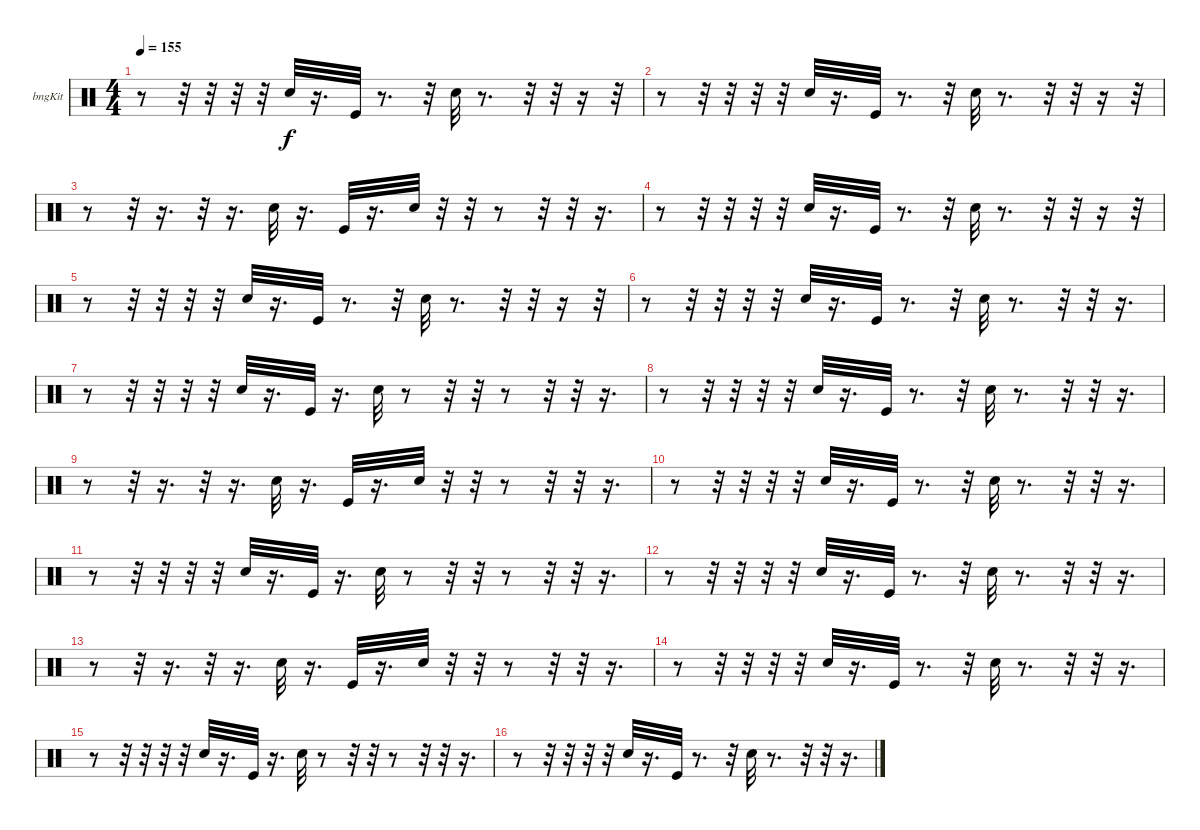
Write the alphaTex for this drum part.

\bracketExtendMode groupsimilarinstruments
\firstSystemTrackNameOrientation horizontal
\otherSystemsTrackNameOrientation horizontal
\track ("Е. Кулаков" "bngKit") {instrument percussion}
\staff {score}
\articulation defaults
\ts (4 4)
\tempo 155
\clef neutral
\ks c
r.8{dy f} r.32 r.32 r.32 r.32 "Snare (hit) 2".32 r.16{d} "Kick (hit)".32 r.8{d} r.32 "Snare (hit) 2".32 r.8{d} r.32 r.32 r.16 r.32 |
r.8 r.32 r.32 r.32 r.32 "Snare (hit) 2".32 r.16{d} "Kick (hit)".32 r.8{d} r.32 "Snare (hit) 2".32 r.8{d} r.32 r.32 r.16 r.32 |
r.8 r.32 r.16{d} r.32 r.16{d} "Snare (hit) 2".32 r.16{d} "Kick (hit)".32 r.16{d} "Snare (hit) 2".32 r.32 r.32 r.8 r.32 r.32 r.16{d} |
r.8 r.32 r.32 r.32 r.32 "Snare (hit) 2".32 r.16{d} "Kick (hit)".32 r.8{d} r.32 "Snare (hit) 2".32 r.8{d} r.32 r.32 r.16 r.32 |
r.8 r.32 r.32 r.32 r.32 "Snare (hit) 2".32 r.16{d} "Kick (hit)".32 r.8{d} r.32 "Snare (hit) 2".32 r.8{d} r.32 r.32 r.16 r.32 |
r.8 r.32 r.32 r.32 r.32 "Snare (hit) 2".32 r.16{d} "Kick (hit)".32 r.8{d} r.32 "Snare (hit) 2".32 r.8{d} r.32 r.32 r.16{d} |
r.8 r.32 r.32 r.32 r.32 "Snare (hit) 2".32 r.16{d} "Kick (hit)".32 r.16{d} "Snare (hit) 2".32 r.8 r.32 r.32 r.8 r.32 r.32 r.16{d} |
r.8 r.32 r.32 r.32 r.32 "Snare (hit) 2".32 r.16{d} "Kick (hit)".32 r.8{d} r.32 "Snare (hit) 2".32 r.8{d} r.32 r.32 r.16{d} |
r.8 r.32 r.16{d} r.32 r.16{d} "Snare (hit) 2".32 r.16{d} "Kick (hit)".32 r.16{d} "Snare (hit) 2".32 r.32 r.32 r.8 r.32 r.32 r.16{d} |
r.8 r.32 r.32 r.32 r.32 "Snare (hit) 2".32 r.16{d} "Kick (hit)".32 r.8{d} r.32 "Snare (hit) 2".32 r.8{d} r.32 r.32 r.16{d} |
r.8 r.32 r.32 r.32 r.32 "Snare (hit) 2".32 r.16{d} "Kick (hit)".32 r.16{d} "Snare (hit) 2".32 r.8 r.32 r.32 r.8 r.32 r.32 r.16{d} |
r.8 r.32 r.32 r.32 r.32 "Snare (hit) 2".32 r.16{d} "Kick (hit)".32 r.8{d} r.32 "Snare (hit) 2".32 r.8{d} r.32 r.32 r.16{d} |
r.8 r.32 r.16{d} r.32 r.16{d} "Snare (hit) 2".32 r.16{d} "Kick (hit)".32 r.16{d} "Snare (hit) 2".32 r.32 r.32 r.8 r.32 r.32 r.16{d} |
r.8 r.32 r.32 r.32 r.32 "Snare (hit) 2".32 r.16{d} "Kick (hit)".32 r.8{d} r.32 "Snare (hit) 2".32 r.8{d} r.32 r.32 r.16{d} |
r.8 r.32 r.32 r.32 r.32 "Snare (hit) 2".32 r.16{d} "Kick (hit)".32 r.16{d} "Snare (hit) 2".32 r.8 r.32 r.32 r.8 r.32 r.32 r.16{d} |
r.8 r.32 r.32 r.32 r.32 "Snare (hit) 2".32 r.16{d} "Kick (hit)".32 r.8{d} r.32 "Snare (hit) 2".32 r.8{d} r.32 r.32 r.16{d}
